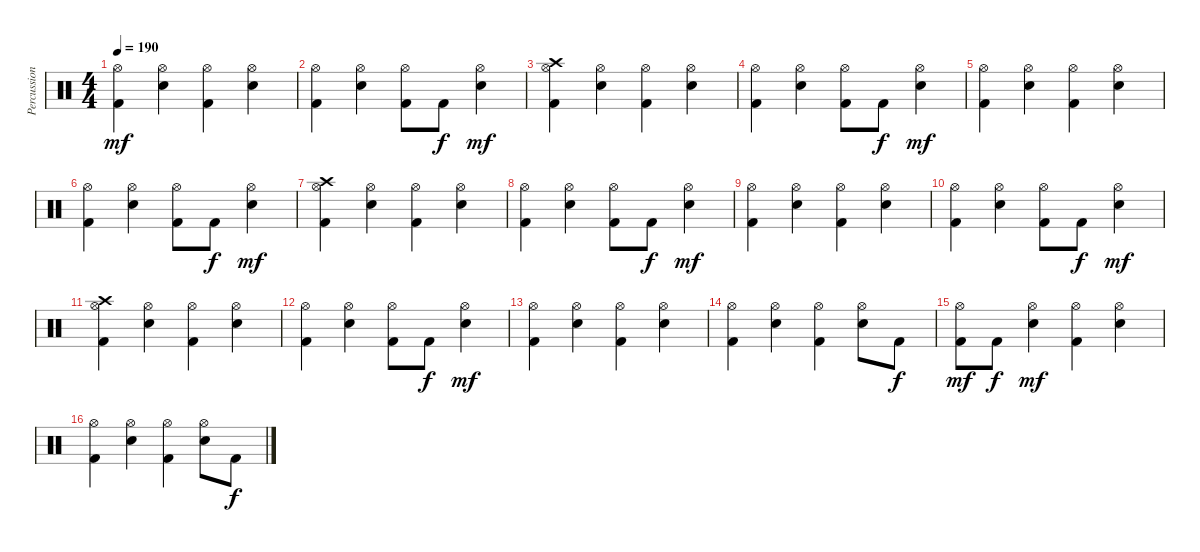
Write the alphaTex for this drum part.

\track ("Percussion" "Percussion") {instrument percussion}
\staff {score}
\articulation defaults
\ts (4 4)
\tempo 190
\clef neutral
\ks c
("Hi-Hat (open)" "Kick (hit) 2").4{dy mf} ("Hi-Hat (open)" "Electric Snare (hit)").4 ("Hi-Hat (open)" "Kick (hit) 2").4 ("Hi-Hat (open)" "Electric Snare (hit)").4 |
("Hi-Hat (open)" "Kick (hit) 2").4 ("Hi-Hat (open)" "Electric Snare (hit)").4 ("Hi-Hat (open)" "Kick (hit) 2").8 "Kick (hit) 2".8{dy f} ("Hi-Hat (open)" "Electric Snare (hit)").4{dy mf} |
("Crash high (hit)" "Hi-Hat (open)" "Kick (hit) 2").4 ("Hi-Hat (open)" "Electric Snare (hit)").4 ("Hi-Hat (open)" "Kick (hit) 2").4 ("Hi-Hat (open)" "Electric Snare (hit)").4 |
("Hi-Hat (open)" "Kick (hit) 2").4 ("Hi-Hat (open)" "Electric Snare (hit)").4 ("Hi-Hat (open)" "Kick (hit) 2").8 "Kick (hit) 2".8{dy f} ("Hi-Hat (open)" "Electric Snare (hit)").4{dy mf} |
("Hi-Hat (open)" "Kick (hit) 2").4 ("Hi-Hat (open)" "Electric Snare (hit)").4 ("Hi-Hat (open)" "Kick (hit) 2").4 ("Hi-Hat (open)" "Electric Snare (hit)").4 |
("Hi-Hat (open)" "Kick (hit) 2").4 ("Hi-Hat (open)" "Electric Snare (hit)").4 ("Hi-Hat (open)" "Kick (hit) 2").8 "Kick (hit) 2".8{dy f} ("Hi-Hat (open)" "Electric Snare (hit)").4{dy mf} |
("Crash high (hit)" "Hi-Hat (open)" "Kick (hit) 2").4 ("Hi-Hat (open)" "Electric Snare (hit)").4 ("Hi-Hat (open)" "Kick (hit) 2").4 ("Hi-Hat (open)" "Electric Snare (hit)").4 |
("Hi-Hat (open)" "Kick (hit) 2").4 ("Hi-Hat (open)" "Electric Snare (hit)").4 ("Hi-Hat (open)" "Kick (hit) 2").8 "Kick (hit) 2".8{dy f} ("Hi-Hat (open)" "Electric Snare (hit)").4{dy mf} |
("Hi-Hat (open)" "Kick (hit) 2").4 ("Hi-Hat (open)" "Electric Snare (hit)").4 ("Hi-Hat (open)" "Kick (hit) 2").4 ("Hi-Hat (open)" "Electric Snare (hit)").4 |
("Hi-Hat (open)" "Kick (hit) 2").4 ("Hi-Hat (open)" "Electric Snare (hit)").4 ("Hi-Hat (open)" "Kick (hit) 2").8 "Kick (hit) 2".8{dy f} ("Hi-Hat (open)" "Electric Snare (hit)").4{dy mf} |
("Crash high (hit)" "Hi-Hat (open)" "Kick (hit) 2").4 ("Hi-Hat (open)" "Electric Snare (hit)").4 ("Hi-Hat (open)" "Kick (hit) 2").4 ("Hi-Hat (open)" "Electric Snare (hit)").4 |
("Hi-Hat (open)" "Kick (hit) 2").4 ("Hi-Hat (open)" "Electric Snare (hit)").4 ("Hi-Hat (open)" "Kick (hit) 2").8 "Kick (hit) 2".8{dy f} ("Hi-Hat (open)" "Electric Snare (hit)").4{dy mf} |
("Hi-Hat (open)" "Kick (hit) 2").4 ("Hi-Hat (open)" "Electric Snare (hit)").4 ("Hi-Hat (open)" "Kick (hit) 2").4 ("Hi-Hat (open)" "Electric Snare (hit)").4 |
("Hi-Hat (open)" "Kick (hit) 2").4 ("Hi-Hat (open)" "Electric Snare (hit)").4 ("Hi-Hat (open)" "Kick (hit) 2").4 ("Hi-Hat (open)" "Electric Snare (hit)").8 "Kick (hit) 2".8{dy f} |
("Hi-Hat (open)" "Kick (hit) 2").8{dy mf} "Kick (hit) 2".8{dy f} ("Hi-Hat (open)" "Electric Snare (hit)").4{dy mf} ("Hi-Hat (open)" "Kick (hit) 2").4 ("Hi-Hat (open)" "Electric Snare (hit)").4 |
("Hi-Hat (open)" "Kick (hit) 2").4 ("Hi-Hat (open)" "Electric Snare (hit)").4 ("Hi-Hat (open)" "Kick (hit) 2").4 ("Hi-Hat (open)" "Electric Snare (hit)").8 "Kick (hit) 2".8{dy f}
